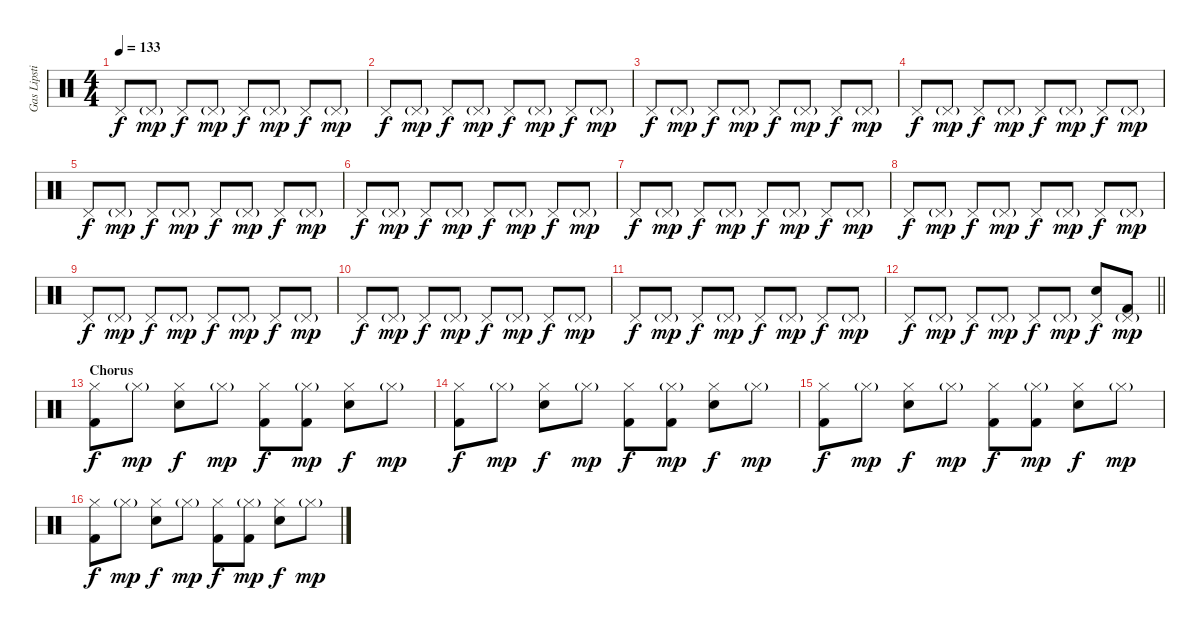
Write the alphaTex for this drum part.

\track ("Gas Lipstick (Drums)" "Gas Lipsti") {instrument percussion}
\staff {score}
\articulation defaults
\ts (4 4)
\tempo 133
\clef neutral
\ks c "Pedal Hi-Hat (hit)".8{dy f} "Pedal Hi-Hat (hit)"{g}.8{dy mp} "Pedal Hi-Hat (hit)".8{dy f} "Pedal Hi-Hat (hit)"{g}.8{dy mp} "Pedal Hi-Hat (hit)".8{dy f} "Pedal Hi-Hat (hit)"{g}.8{dy mp} "Pedal Hi-Hat (hit)".8{dy f} "Pedal Hi-Hat (hit)"{g}.8{dy mp}
|
"Pedal Hi-Hat (hit)".8{dy f} "Pedal Hi-Hat (hit)"{g}.8{dy mp} "Pedal Hi-Hat (hit)".8{dy f} "Pedal Hi-Hat (hit)"{g}.8{dy mp} "Pedal Hi-Hat (hit)".8{dy f} "Pedal Hi-Hat (hit)"{g}.8{dy mp} "Pedal Hi-Hat (hit)".8{dy f} "Pedal Hi-Hat (hit)"{g}.8{dy mp} |
"Pedal Hi-Hat (hit)".8{dy f} "Pedal Hi-Hat (hit)"{g}.8{dy mp} "Pedal Hi-Hat (hit)".8{dy f} "Pedal Hi-Hat (hit)"{g}.8{dy mp} "Pedal Hi-Hat (hit)".8{dy f} "Pedal Hi-Hat (hit)"{g}.8{dy mp} "Pedal Hi-Hat (hit)".8{dy f} "Pedal Hi-Hat (hit)"{g}.8{dy mp} |
"Pedal Hi-Hat (hit)".8{dy f} "Pedal Hi-Hat (hit)"{g}.8{dy mp} "Pedal Hi-Hat (hit)".8{dy f} "Pedal Hi-Hat (hit)"{g}.8{dy mp} "Pedal Hi-Hat (hit)".8{dy f} "Pedal Hi-Hat (hit)"{g}.8{dy mp} "Pedal Hi-Hat (hit)".8{dy f} "Pedal Hi-Hat (hit)"{g}.8{dy mp} |
"Pedal Hi-Hat (hit)".8{dy f} "Pedal Hi-Hat (hit)"{g}.8{dy mp} "Pedal Hi-Hat (hit)".8{dy f} "Pedal Hi-Hat (hit)"{g}.8{dy mp} "Pedal Hi-Hat (hit)".8{dy f} "Pedal Hi-Hat (hit)"{g}.8{dy mp} "Pedal Hi-Hat (hit)".8{dy f} "Pedal Hi-Hat (hit)"{g}.8{dy mp} |
"Pedal Hi-Hat (hit)".8{dy f} "Pedal Hi-Hat (hit)"{g}.8{dy mp} "Pedal Hi-Hat (hit)".8{dy f} "Pedal Hi-Hat (hit)"{g}.8{dy mp} "Pedal Hi-Hat (hit)".8{dy f} "Pedal Hi-Hat (hit)"{g}.8{dy mp} "Pedal Hi-Hat (hit)".8{dy f} "Pedal Hi-Hat (hit)"{g}.8{dy mp} |
"Pedal Hi-Hat (hit)".8{dy f} "Pedal Hi-Hat (hit)"{g}.8{dy mp} "Pedal Hi-Hat (hit)".8{dy f} "Pedal Hi-Hat (hit)"{g}.8{dy mp} "Pedal Hi-Hat (hit)".8{dy f} "Pedal Hi-Hat (hit)"{g}.8{dy mp} "Pedal Hi-Hat (hit)".8{dy f} "Pedal Hi-Hat (hit)"{g}.8{dy mp} |
"Pedal Hi-Hat (hit)".8{dy f} "Pedal Hi-Hat (hit)"{g}.8{dy mp} "Pedal Hi-Hat (hit)".8{dy f} "Pedal Hi-Hat (hit)"{g}.8{dy mp} "Pedal Hi-Hat (hit)".8{dy f} "Pedal Hi-Hat (hit)"{g}.8{dy mp} "Pedal Hi-Hat (hit)".8{dy f} "Pedal Hi-Hat (hit)"{g}.8{dy mp} |
"Pedal Hi-Hat (hit)".8{dy f} "Pedal Hi-Hat (hit)"{g}.8{dy mp} "Pedal Hi-Hat (hit)".8{dy f} "Pedal Hi-Hat (hit)"{g}.8{dy mp} "Pedal Hi-Hat (hit)".8{dy f} "Pedal Hi-Hat (hit)"{g}.8{dy mp} "Pedal Hi-Hat (hit)".8{dy f} "Pedal Hi-Hat (hit)"{g}.8{dy mp} |
"Pedal Hi-Hat (hit)".8{dy f} "Pedal Hi-Hat (hit)"{g}.8{dy mp} "Pedal Hi-Hat (hit)".8{dy f} "Pedal Hi-Hat (hit)"{g}.8{dy mp} "Pedal Hi-Hat (hit)".8{dy f} "Pedal Hi-Hat (hit)"{g}.8{dy mp} "Pedal Hi-Hat (hit)".8{dy f} "Pedal Hi-Hat (hit)"{g}.8{dy mp} |
"Pedal Hi-Hat (hit)".8{dy f} "Pedal Hi-Hat (hit)"{g}.8{dy mp} "Pedal Hi-Hat (hit)".8{dy f} "Pedal Hi-Hat (hit)"{g}.8{dy mp} "Pedal Hi-Hat (hit)".8{dy f} "Pedal Hi-Hat (hit)"{g}.8{dy mp} "Pedal Hi-Hat (hit)".8{dy f} "Pedal Hi-Hat (hit)"{g}.8{dy mp} |
\barLineRight lightlight "Pedal Hi-Hat (hit)".8{dy f} "Pedal Hi-Hat (hit)"{g}.8{dy mp} "Pedal Hi-Hat (hit)".8{dy f} "Pedal Hi-Hat (hit)"{g}.8{dy mp} "Pedal Hi-Hat (hit)".8{dy f} "Pedal Hi-Hat (hit)"{g}.8{dy mp}
("Pedal Hi-Hat (hit)" "Snare (hit) 2").8{dy f} ("Pedal Hi-Hat (hit)"{g} "Kick (hit) 2").8{dy mp} |
\section ("" "Chorus")
("Hi-Hat (closed)" "Kick (hit) 2").8{dy f} "Hi-Hat (closed)"{g}.8{dy mp} ("Hi-Hat (closed)" "Snare (hit) 2").8{dy f} "Hi-Hat (closed)"{g}.8{dy mp} ("Hi-Hat (closed)" "Kick (hit) 2").8{dy f} ("Hi-Hat (closed)"{g} "Kick (hit) 2").8{dy mp} ("Hi-Hat (closed)" "Snare (hit) 2").8{dy f} "Hi-Hat (closed)"{g}.8{dy mp} |
("Hi-Hat (closed)" "Kick (hit) 2").8{dy f} "Hi-Hat (closed)"{g}.8{dy mp} ("Hi-Hat (closed)" "Snare (hit) 2").8{dy f} "Hi-Hat (closed)"{g}.8{dy mp} ("Hi-Hat (closed)" "Kick (hit) 2").8{dy f} ("Hi-Hat (closed)"{g} "Kick (hit) 2").8{dy mp} ("Hi-Hat (closed)" "Snare (hit) 2").8{dy f} "Hi-Hat (closed)"{g}.8{dy mp} |
("Hi-Hat (closed)" "Kick (hit) 2").8{dy f} "Hi-Hat (closed)"{g}.8{dy mp} ("Hi-Hat (closed)" "Snare (hit) 2").8{dy f} "Hi-Hat (closed)"{g}.8{dy mp} ("Hi-Hat (closed)" "Kick (hit) 2").8{dy f} ("Hi-Hat (closed)"{g} "Kick (hit) 2").8{dy mp} ("Hi-Hat (closed)" "Snare (hit) 2").8{dy f} "Hi-Hat (closed)"{g}.8{dy mp} |
("Hi-Hat (closed)" "Kick (hit) 2").8{dy f} "Hi-Hat (closed)"{g}.8{dy mp} ("Hi-Hat (closed)" "Snare (hit) 2").8{dy f} "Hi-Hat (closed)"{g}.8{dy mp} ("Hi-Hat (closed)" "Kick (hit) 2").8{dy f} ("Hi-Hat (closed)"{g} "Kick (hit) 2").8{dy mp} ("Hi-Hat (closed)" "Snare (hit) 2").8{dy f} "Hi-Hat (closed)"{g}.8{dy mp}
